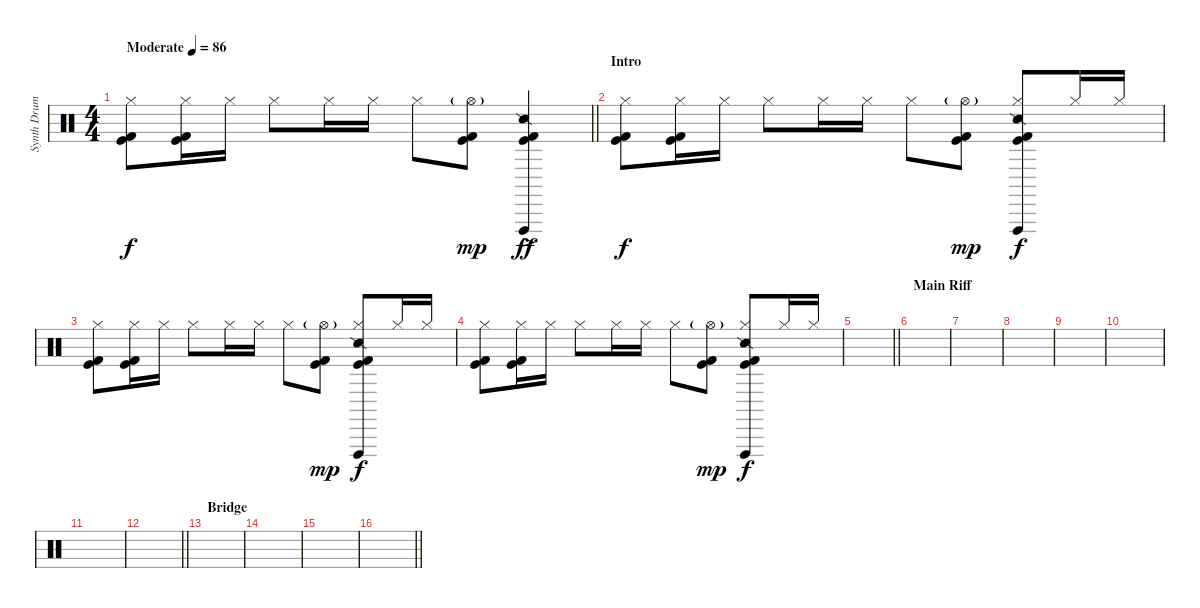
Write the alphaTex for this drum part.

\track ("Synth Drums" "Synth Drum") {instrument percussion}
\staff {score}
\articulation defaults
\ts (4 4)
\tempo (86 "Moderate")
\clef neutral
\barLineRight lightlight
\ks c
("Hi-Hat (closed)" "Kick (hit) 2" "Kick (hit)").8{dy f} ("Hi-Hat (closed)" "Kick (hit) 2" "Kick (hit)").16 "Hi-Hat (closed)".16 "Hi-Hat (closed)".8 "Hi-Hat (closed)".16 "Hi-Hat (closed)".16 "Hi-Hat (closed)".8 ("Hi-Hat (open)"{g} "Kick (hit) 2" "Kick (hit)").8{dy mp} ("Snare (side stick) 2"{ac} "Vibraslap (hit)"{ac} "Kick (hit) 2" "Kick (hit)").4{dy ff} |
\section ("" "Intro")
("Hi-Hat (closed)" "Kick (hit) 2" "Kick (hit)").8{dy f} ("Hi-Hat (closed)" "Kick (hit) 2" "Kick (hit)").16 "Hi-Hat (closed)".16 "Hi-Hat (closed)".8 "Hi-Hat (closed)".16 "Hi-Hat (closed)".16 "Hi-Hat (closed)".8 ("Hi-Hat (open)"{g} "Kick (hit) 2" "Kick (hit)").8{dy mp} ("Hi-Hat (closed)" "Snare (side stick) 2" "Vibraslap (hit)" "Kick (hit) 2" "Kick (hit)").8{dy f} "Hi-Hat (closed)".16 "Hi-Hat (closed)".16 |
("Hi-Hat (closed)" "Kick (hit) 2" "Kick (hit)").8 ("Hi-Hat (closed)" "Kick (hit) 2" "Kick (hit)").16 "Hi-Hat (closed)".16 "Hi-Hat (closed)".8 "Hi-Hat (closed)".16 "Hi-Hat (closed)".16 "Hi-Hat (closed)".8 ("Hi-Hat (open)"{g} "Kick (hit) 2" "Kick (hit)").8{dy mp} ("Hi-Hat (closed)" "Snare (side stick) 2" "Vibraslap (hit)" "Kick (hit) 2" "Kick (hit)").8{dy f} "Hi-Hat (closed)".16 "Hi-Hat (closed)".16 |
("Hi-Hat (closed)" "Kick (hit) 2" "Kick (hit)").8 ("Hi-Hat (closed)" "Kick (hit) 2" "Kick (hit)").16 "Hi-Hat (closed)".16 "Hi-Hat (closed)".8 "Hi-Hat (closed)".16 "Hi-Hat (closed)".16 "Hi-Hat (closed)".8 ("Hi-Hat (open)"{g} "Kick (hit) 2" "Kick (hit)").8{dy mp} ("Hi-Hat (closed)" "Snare (side stick) 2" "Vibraslap (hit)" "Kick (hit) 2" "Kick (hit)").8{dy f} "Hi-Hat (closed)".16 "Hi-Hat (closed)".16 |
\barLineRight lightlight
|
\section ("" "Main Riff")
|
|
|
|
|
|
\barLineRight lightlight
|
\section ("" "Bridge")
|
|
|
\barLineRight lightlight
